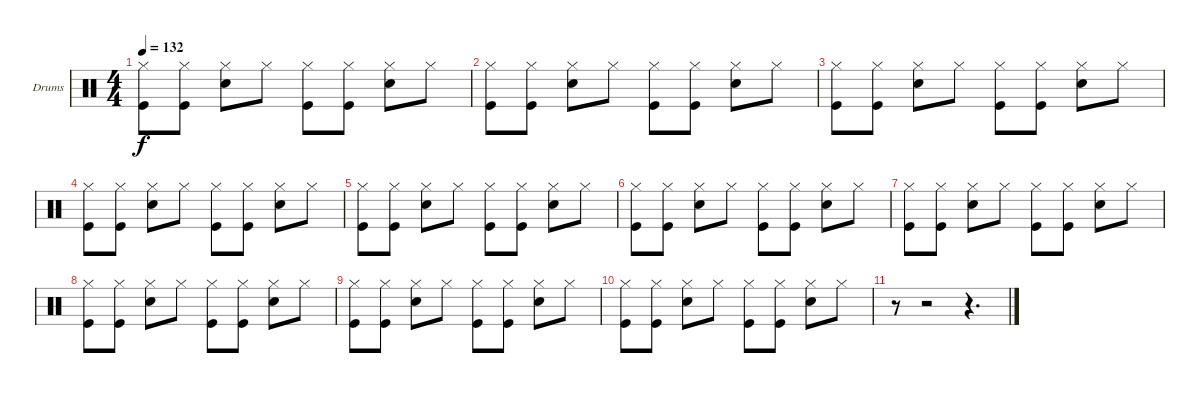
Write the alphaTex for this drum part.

\bracketExtendMode groupsimilarinstruments
\firstSystemTrackNameOrientation horizontal
\otherSystemsTrackNameOrientation horizontal
\track ("Drumkit" "Drums") {instrument percussion}
\staff {score}
\articulation defaults
\ts (4 4)
\tempo 132
\clef neutral
\ks c
("Kick (hit)" "Hi-Hat (closed)").8{dy f} ("Kick (hit)" "Hi-Hat (closed)").8 ("Snare (hit) 2" "Hi-Hat (closed)").8 "Hi-Hat (closed)".8 ("Kick (hit)" "Hi-Hat (closed)").8 ("Kick (hit)" "Hi-Hat (closed)").8 ("Snare (hit) 2" "Hi-Hat (closed)").8 "Hi-Hat (closed)".8 |
("Kick (hit)" "Hi-Hat (closed)").8 ("Kick (hit)" "Hi-Hat (closed)").8 ("Snare (hit) 2" "Hi-Hat (closed)").8 "Hi-Hat (closed)".8 ("Kick (hit)" "Hi-Hat (closed)").8 ("Kick (hit)" "Hi-Hat (closed)").8 ("Snare (hit) 2" "Hi-Hat (closed)").8 "Hi-Hat (closed)".8 |
("Kick (hit)" "Hi-Hat (closed)").8 ("Kick (hit)" "Hi-Hat (closed)").8 ("Snare (hit) 2" "Hi-Hat (closed)").8 "Hi-Hat (closed)".8 ("Kick (hit)" "Hi-Hat (closed)").8 ("Kick (hit)" "Hi-Hat (closed)").8 ("Snare (hit) 2" "Hi-Hat (closed)").8 "Hi-Hat (closed)".8 |
("Kick (hit)" "Hi-Hat (closed)").8 ("Kick (hit)" "Hi-Hat (closed)").8 ("Snare (hit) 2" "Hi-Hat (closed)").8 "Hi-Hat (closed)".8 ("Kick (hit)" "Hi-Hat (closed)").8 ("Kick (hit)" "Hi-Hat (closed)").8 ("Snare (hit) 2" "Hi-Hat (closed)").8 "Hi-Hat (closed)".8 |
("Kick (hit)" "Hi-Hat (closed)").8 ("Kick (hit)" "Hi-Hat (closed)").8 ("Snare (hit) 2" "Hi-Hat (closed)").8 "Hi-Hat (closed)".8 ("Kick (hit)" "Hi-Hat (closed)").8 ("Kick (hit)" "Hi-Hat (closed)").8 ("Snare (hit) 2" "Hi-Hat (closed)").8 "Hi-Hat (closed)".8 |
("Kick (hit)" "Hi-Hat (closed)").8 ("Kick (hit)" "Hi-Hat (closed)").8 ("Snare (hit) 2" "Hi-Hat (closed)").8 "Hi-Hat (closed)".8 ("Kick (hit)" "Hi-Hat (closed)").8 ("Kick (hit)" "Hi-Hat (closed)").8 ("Snare (hit) 2" "Hi-Hat (closed)").8 "Hi-Hat (closed)".8 |
("Kick (hit)" "Hi-Hat (closed)").8 ("Kick (hit)" "Hi-Hat (closed)").8 ("Snare (hit) 2" "Hi-Hat (closed)").8 "Hi-Hat (closed)".8 ("Kick (hit)" "Hi-Hat (closed)").8 ("Kick (hit)" "Hi-Hat (closed)").8 ("Snare (hit) 2" "Hi-Hat (closed)").8 "Hi-Hat (closed)".8 |
("Kick (hit)" "Hi-Hat (closed)").8 ("Kick (hit)" "Hi-Hat (closed)").8 ("Snare (hit) 2" "Hi-Hat (closed)").8 "Hi-Hat (closed)".8 ("Kick (hit)" "Hi-Hat (closed)").8 ("Kick (hit)" "Hi-Hat (closed)").8 ("Snare (hit) 2" "Hi-Hat (closed)").8 "Hi-Hat (closed)".8 |
("Kick (hit)" "Hi-Hat (closed)").8 ("Kick (hit)" "Hi-Hat (closed)").8 ("Snare (hit) 2" "Hi-Hat (closed)").8 "Hi-Hat (closed)".8 ("Kick (hit)" "Hi-Hat (closed)").8 ("Kick (hit)" "Hi-Hat (closed)").8 ("Snare (hit) 2" "Hi-Hat (closed)").8 "Hi-Hat (closed)".8 |
("Kick (hit)" "Hi-Hat (closed)").8 ("Kick (hit)" "Hi-Hat (closed)").8 ("Snare (hit) 2" "Hi-Hat (closed)").8 "Hi-Hat (closed)".8 ("Kick (hit)" "Hi-Hat (closed)").8 ("Kick (hit)" "Hi-Hat (closed)").8 ("Snare (hit) 2" "Hi-Hat (closed)").8 "Hi-Hat (closed)".8 |
r.8 r.2 r.4{d}
